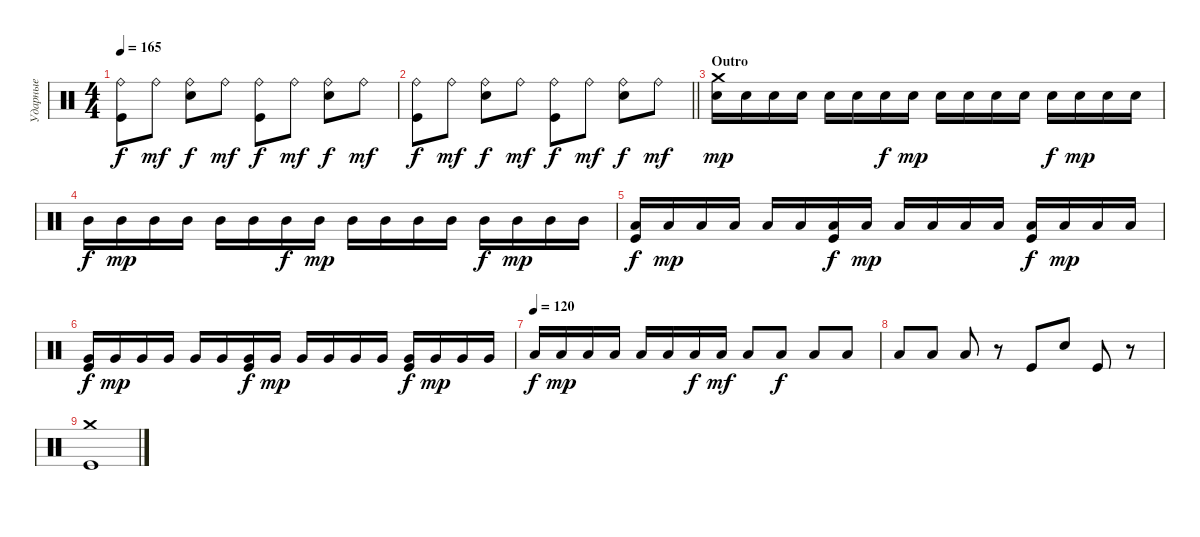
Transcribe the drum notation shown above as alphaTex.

\track ("Ударные" "Ударные") {instrument percussion}
\staff {score}
\articulation defaults
\ts (4 4)
\tempo 165
\clef neutral
\ks c
("Ride (bell)" "Kick (hit)").8{dy f} "Ride (bell)".8{dy mf} ("Ride (bell)" "Electric Snare (hit)").8{dy f} "Ride (bell)".8{dy mf} ("Ride (bell)" "Kick (hit)").8{dy f} "Ride (bell)".8{dy mf} ("Ride (bell)" "Electric Snare (hit)").8{dy f} "Ride (bell)".8{dy mf} |
\barLineRight lightlight
("Ride (bell)" "Kick (hit)").8{dy f} "Ride (bell)".8{dy mf} ("Ride (bell)" "Electric Snare (hit)").8{dy f} "Ride (bell)".8{dy mf} ("Ride (bell)" "Kick (hit)").8{dy f} "Ride (bell)".8{dy mf} ("Ride (bell)" "Electric Snare (hit)").8{dy f} "Ride (bell)".8{dy mf} |
\section ("" "Outro")
("Crash medium (hit)" "Electric Snare (hit)").16{dy mp} "Electric Snare (hit)".16 "Electric Snare (hit)".16 "Electric Snare (hit)".16 "Electric Snare (hit)".16 "Electric Snare (hit)".16 "Electric Snare (hit)".16{dy f} "Electric Snare (hit)".16{dy mp} "Electric Snare (hit)".16 "Electric Snare (hit)".16 "Electric Snare (hit)".16 "Electric Snare (hit)".16 "Electric Snare (hit)".16{dy f} "Electric Snare (hit)".16{dy mp} "Electric Snare (hit)".16 "Electric Snare (hit)".16 |
"Mid Tom (hit)".16{dy f} "Mid Tom (hit)".16{dy mp} "Mid Tom (hit)".16 "Mid Tom (hit)".16 "Mid Tom (hit)".16 "Mid Tom (hit)".16 "Mid Tom (hit)".16{dy f} "Mid Tom (hit)".16{dy mp} "Mid Tom (hit)".16 "Mid Tom (hit)".16 "Mid Tom (hit)".16 "Mid Tom (hit)".16 "Mid Tom (hit)".16{dy f} "Mid Tom (hit)".16{dy mp} "Mid Tom (hit)".16 "Mid Tom (hit)".16 |
("Low Tom (hit)" "Kick (hit)").16{dy f} "Low Tom (hit)".16{dy mp} "Low Tom (hit)".16 "Low Tom (hit)".16 "Low Tom (hit)".16 "Low Tom (hit)".16 ("Low Tom (hit)" "Kick (hit)").16{dy f} "Low Tom (hit)".16{dy mp} "Low Tom (hit)".16 "Low Tom (hit)".16 "Low Tom (hit)".16 "Low Tom (hit)".16 ("Low Tom (hit)" "Kick (hit)").16{dy f} "Low Tom (hit)".16{dy mp} "Low Tom (hit)".16 "Low Tom (hit)".16 |
("Very Low Tom (hit)" "Kick (hit)").16{dy f} "Very Low Tom (hit)".16{dy mp} "Very Low Tom (hit)".16 "Very Low Tom (hit)".16 "Very Low Tom (hit)".16 "Very Low Tom (hit)".16 ("Very Low Tom (hit)" "Kick (hit)").16{dy f} "Very Low Tom (hit)".16{dy mp} "Very Low Tom (hit)".16 "Very Low Tom (hit)".16 "Very Low Tom (hit)".16 "Very Low Tom (hit)".16 ("Very Low Tom (hit)" "Kick (hit)").16{dy f} "Very Low Tom (hit)".16{dy mp} "Very Low Tom (hit)".16 "Very Low Tom (hit)".16 |
\tempo (120)
"Low Floor Tom (hit)".16{dy f} "Low Floor Tom (hit)".16{dy mp} "Low Floor Tom (hit)".16 "Low Floor Tom (hit)".16 "Low Floor Tom (hit)".16 "Low Floor Tom (hit)".16 "Low Floor Tom (hit)".16{dy f} "Low Floor Tom (hit)".16{dy mf} "Low Floor Tom (hit)".8 "Low Floor Tom (hit)".8{dy f} "Low Floor Tom (hit)".8 "Low Floor Tom (hit)".8 |
"Low Floor Tom (hit)".8 "Low Floor Tom (hit)".8 "Low Floor Tom (hit)".8 r.8 "Kick (hit)".8 "Electric Snare (hit)".8 "Kick (hit)".8 r.8 |
("Crash medium (hit)" "Kick (hit)").1
